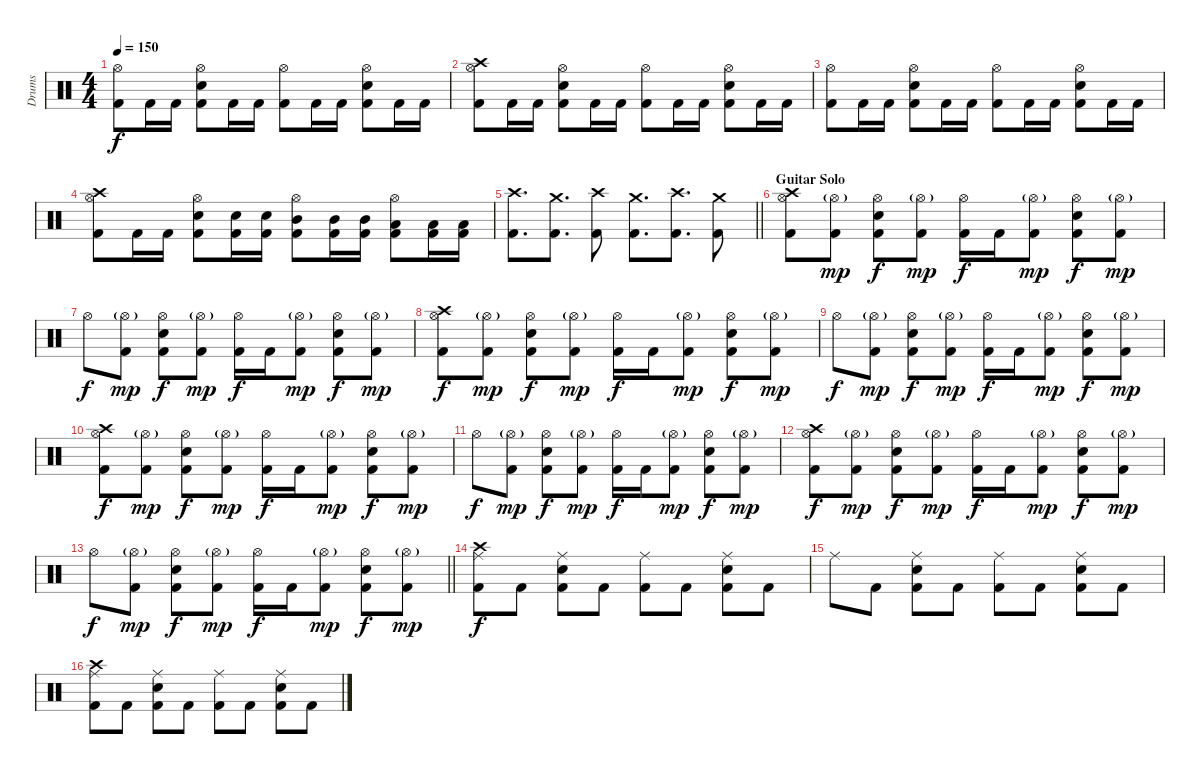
\track ("Drums" "Drums") {instrument percussion}
\staff {score}
\articulation defaults
\ts (4 4)
\tempo 150
\clef neutral
\ks c
("Hi-Hat (open)" "Kick (hit) 2").8{dy f} "Kick (hit) 2".16 "Kick (hit) 2".16 ("Hi-Hat (open)" "Snare (hit) 2" "Kick (hit) 2").8 "Kick (hit) 2".16 "Kick (hit) 2".16 ("Hi-Hat (open)" "Kick (hit) 2").8 "Kick (hit) 2".16 "Kick (hit) 2".16 ("Hi-Hat (open)" "Snare (hit) 2" "Kick (hit) 2").8 "Kick (hit) 2".16 "Kick (hit) 2".16 |
("Crash high (hit)" "Hi-Hat (open)" "Kick (hit) 2").8 "Kick (hit) 2".16 "Kick (hit) 2".16 ("Hi-Hat (open)" "Snare (hit) 2" "Kick (hit) 2").8 "Kick (hit) 2".16 "Kick (hit) 2".16 ("Hi-Hat (open)" "Kick (hit) 2").8 "Kick (hit) 2".16 "Kick (hit) 2".16 ("Hi-Hat (open)" "Snare (hit) 2" "Kick (hit) 2").8 "Kick (hit) 2".16 "Kick (hit) 2".16 |
("Hi-Hat (open)" "Kick (hit) 2").8 "Kick (hit) 2".16 "Kick (hit) 2".16 ("Hi-Hat (open)" "Snare (hit) 2" "Kick (hit) 2").8 "Kick (hit) 2".16 "Kick (hit) 2".16 ("Hi-Hat (open)" "Kick (hit) 2").8 "Kick (hit) 2".16 "Kick (hit) 2".16 ("Hi-Hat (open)" "Snare (hit) 2" "Kick (hit) 2").8 "Kick (hit) 2".16 "Kick (hit) 2".16 |
("Crash high (hit)" "Hi-Hat (open)" "Kick (hit) 2").8 "Kick (hit) 2".16 "Kick (hit) 2".16 ("Hi-Hat (open)" "Snare (hit) 2" "Kick (hit) 2").8 ("Snare (hit) 2" "Kick (hit) 2").16 ("Snare (hit) 2" "Kick (hit) 2").16 ("Hi-Hat (open)" "Mid Tom (hit)" "Kick (hit) 2").8 ("Mid Tom (hit)" "Kick (hit) 2").16 ("Mid Tom (hit)" "Kick (hit) 2").16 ("Hi-Hat (open)" "Low Tom (hit)" "Kick (hit) 2").8 ("Low Tom (hit)" "Kick (hit) 2").16 ("Low Tom (hit)" "Kick (hit) 2").16 |
\barLineRight lightlight
("Crash high (hit)" "Kick (hit) 2").8{d} ("Crash medium (hit)" "Kick (hit) 2").8{d} ("Crash high (hit)" "Kick (hit) 2").8 ("Crash medium (hit)" "Kick (hit) 2").8{d} ("Crash high (hit)" "Kick (hit) 2").8{d} ("Crash medium (hit)" "Kick (hit) 2").8 |
\section ("" "Guitar Solo")
("Crash high (hit)" "Hi-Hat (open)" "Kick (hit) 2").8 ("Hi-Hat (open)"{g} "Kick (hit) 2").8{dy mp} ("Hi-Hat (open)" "Snare (hit) 2" "Kick (hit) 2").8{dy f} ("Hi-Hat (open)"{g} "Kick (hit) 2").8{dy mp} ("Hi-Hat (open)" "Kick (hit) 2").16{dy f} "Kick (hit) 2".16 ("Hi-Hat (open)"{g} "Kick (hit) 2").8{dy mp} ("Hi-Hat (open)" "Snare (hit) 2" "Kick (hit) 2").8{dy f} ("Hi-Hat (open)"{g} "Kick (hit) 2").8{dy mp} |
"Hi-Hat (open)".8{dy f} ("Hi-Hat (open)"{g} "Kick (hit) 2").8{dy mp} ("Hi-Hat (open)" "Snare (hit) 2" "Kick (hit) 2").8{dy f} ("Hi-Hat (open)"{g} "Kick (hit) 2").8{dy mp} ("Hi-Hat (open)" "Kick (hit) 2").16{dy f} "Kick (hit) 2".16 ("Hi-Hat (open)"{g} "Kick (hit) 2").8{dy mp} ("Hi-Hat (open)" "Snare (hit) 2" "Kick (hit) 2").8{dy f} ("Hi-Hat (open)"{g} "Kick (hit) 2").8{dy mp} |
("Crash high (hit)" "Hi-Hat (open)" "Kick (hit) 2").8{dy f} ("Hi-Hat (open)"{g} "Kick (hit) 2").8{dy mp} ("Hi-Hat (open)" "Snare (hit) 2" "Kick (hit) 2").8{dy f} ("Hi-Hat (open)"{g} "Kick (hit) 2").8{dy mp} ("Hi-Hat (open)" "Kick (hit) 2").16{dy f} "Kick (hit) 2".16 ("Hi-Hat (open)"{g} "Kick (hit) 2").8{dy mp} ("Hi-Hat (open)" "Snare (hit) 2" "Kick (hit) 2").8{dy f} ("Hi-Hat (open)"{g} "Kick (hit) 2").8{dy mp} |
"Hi-Hat (open)".8{dy f} ("Hi-Hat (open)"{g} "Kick (hit) 2").8{dy mp} ("Hi-Hat (open)" "Snare (hit) 2" "Kick (hit) 2").8{dy f} ("Hi-Hat (open)"{g} "Kick (hit) 2").8{dy mp} ("Hi-Hat (open)" "Kick (hit) 2").16{dy f} "Kick (hit) 2".16 ("Hi-Hat (open)"{g} "Kick (hit) 2").8{dy mp} ("Hi-Hat (open)" "Snare (hit) 2" "Kick (hit) 2").8{dy f} ("Hi-Hat (open)"{g} "Kick (hit) 2").8{dy mp} |
("Crash high (hit)" "Hi-Hat (open)" "Kick (hit) 2").8{dy f} ("Hi-Hat (open)"{g} "Kick (hit) 2").8{dy mp} ("Hi-Hat (open)" "Snare (hit) 2" "Kick (hit) 2").8{dy f} ("Hi-Hat (open)"{g} "Kick (hit) 2").8{dy mp} ("Hi-Hat (open)" "Kick (hit) 2").16{dy f} "Kick (hit) 2".16 ("Hi-Hat (open)"{g} "Kick (hit) 2").8{dy mp} ("Hi-Hat (open)" "Snare (hit) 2" "Kick (hit) 2").8{dy f} ("Hi-Hat (open)"{g} "Kick (hit) 2").8{dy mp} |
"Hi-Hat (open)".8{dy f} ("Hi-Hat (open)"{g} "Kick (hit) 2").8{dy mp} ("Hi-Hat (open)" "Snare (hit) 2" "Kick (hit) 2").8{dy f} ("Hi-Hat (open)"{g} "Kick (hit) 2").8{dy mp} ("Hi-Hat (open)" "Kick (hit) 2").16{dy f} "Kick (hit) 2".16 ("Hi-Hat (open)"{g} "Kick (hit) 2").8{dy mp} ("Hi-Hat (open)" "Snare (hit) 2" "Kick (hit) 2").8{dy f} ("Hi-Hat (open)"{g} "Kick (hit) 2").8{dy mp} |
("Crash high (hit)" "Hi-Hat (open)" "Kick (hit) 2").8{dy f} ("Hi-Hat (open)"{g} "Kick (hit) 2").8{dy mp} ("Hi-Hat (open)" "Snare (hit) 2" "Kick (hit) 2").8{dy f} ("Hi-Hat (open)"{g} "Kick (hit) 2").8{dy mp} ("Hi-Hat (open)" "Kick (hit) 2").16{dy f} "Kick (hit) 2".16 ("Hi-Hat (open)"{g} "Kick (hit) 2").8{dy mp} ("Hi-Hat (open)" "Snare (hit) 2" "Kick (hit) 2").8{dy f} ("Hi-Hat (open)"{g} "Kick (hit) 2").8{dy mp} |
\barLineRight lightlight "Hi-Hat (open)".8{dy f}
("Hi-Hat (open)"{g} "Kick (hit) 2").8{dy mp} ("Hi-Hat (open)" "Snare (hit) 2" "Kick (hit) 2").8{dy f} ("Hi-Hat (open)"{g} "Kick (hit) 2").8{dy mp} ("Hi-Hat (open)" "Kick (hit) 2").16{dy f} "Kick (hit) 2".16 ("Hi-Hat (open)"{g} "Kick (hit) 2").8{dy mp} ("Hi-Hat (open)" "Snare (hit) 2" "Kick (hit) 2").8{dy f} ("Hi-Hat (open)"{g} "Kick (hit) 2").8{dy mp} |
("Crash high (hit)" "Ride (middle)" "Kick (hit) 2").8{dy f} "Kick (hit) 2".8 ("Ride (middle)" "Snare (hit) 2" "Kick (hit) 2").8 "Kick (hit) 2".8 ("Ride (middle)" "Kick (hit) 2").8 "Kick (hit) 2".8 ("Ride (middle)" "Snare (hit) 2" "Kick (hit) 2").8 "Kick (hit) 2".8 |
"Ride (middle)".8 "Kick (hit) 2".8 ("Ride (middle)" "Snare (hit) 2" "Kick (hit) 2").8 "Kick (hit) 2".8 ("Ride (middle)" "Kick (hit) 2").8 "Kick (hit) 2".8 ("Ride (middle)" "Snare (hit) 2" "Kick (hit) 2").8 "Kick (hit) 2".8 |
("Crash high (hit)" "Ride (middle)" "Kick (hit) 2").8 "Kick (hit) 2".8 ("Ride (middle)" "Snare (hit) 2" "Kick (hit) 2").8 "Kick (hit) 2".8 ("Ride (middle)" "Kick (hit) 2").8 "Kick (hit) 2".8 ("Ride (middle)" "Snare (hit) 2" "Kick (hit) 2").8 "Kick (hit) 2".8
